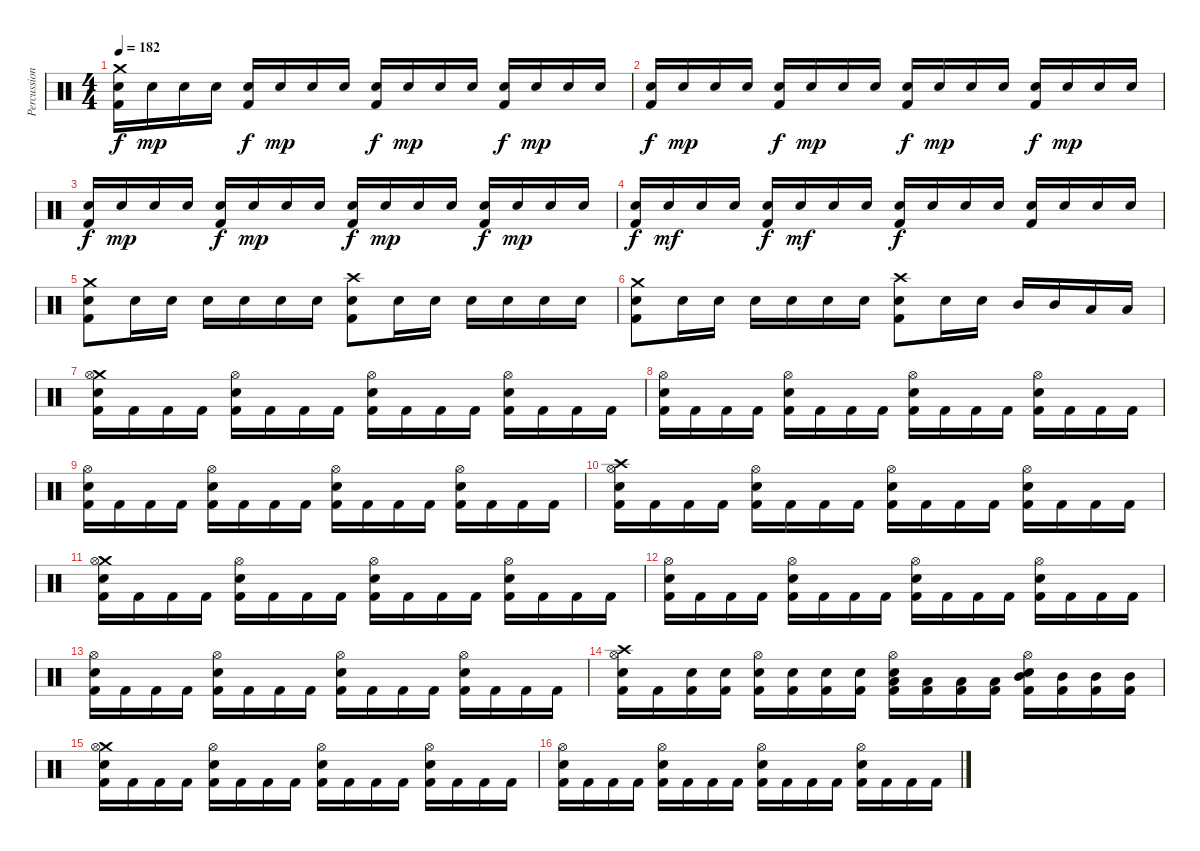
\track ("Percussion" "Percussion") {instrument percussion}
\staff {score}
\articulation defaults
\ts (4 4)
\tempo 182
\clef neutral
\ks c
("Crash medium (hit)" "Electric Snare (hit)" "Kick (hit) 2").16{dy f} "Electric Snare (hit)".16{dy mp} "Electric Snare (hit)".16 "Electric Snare (hit)".16 ("Electric Snare (hit)" "Kick (hit) 2").16{dy f} "Electric Snare (hit)".16{dy mp} "Electric Snare (hit)".16 "Electric Snare (hit)".16 ("Electric Snare (hit)" "Kick (hit) 2").16{dy f} "Electric Snare (hit)".16{dy mp} "Electric Snare (hit)".16 "Electric Snare (hit)".16 ("Electric Snare (hit)" "Kick (hit) 2").16{dy f} "Electric Snare (hit)".16{dy mp} "Electric Snare (hit)".16 "Electric Snare (hit)".16 |
("Electric Snare (hit)" "Kick (hit) 2").16{dy f} "Electric Snare (hit)".16{dy mp} "Electric Snare (hit)".16 "Electric Snare (hit)".16 ("Electric Snare (hit)" "Kick (hit) 2").16{dy f} "Electric Snare (hit)".16{dy mp} "Electric Snare (hit)".16 "Electric Snare (hit)".16 ("Electric Snare (hit)" "Kick (hit) 2").16{dy f} "Electric Snare (hit)".16{dy mp} "Electric Snare (hit)".16 "Electric Snare (hit)".16 ("Electric Snare (hit)" "Kick (hit) 2").16{dy f} "Electric Snare (hit)".16{dy mp} "Electric Snare (hit)".16 "Electric Snare (hit)".16 |
("Electric Snare (hit)" "Kick (hit) 2").16{dy f} "Electric Snare (hit)".16{dy mp} "Electric Snare (hit)".16 "Electric Snare (hit)".16 ("Electric Snare (hit)" "Kick (hit) 2").16{dy f} "Electric Snare (hit)".16{dy mp} "Electric Snare (hit)".16 "Electric Snare (hit)".16 ("Electric Snare (hit)" "Kick (hit) 2").16{dy f} "Electric Snare (hit)".16{dy mp} "Electric Snare (hit)".16 "Electric Snare (hit)".16 ("Electric Snare (hit)" "Kick (hit) 2").16{dy f} "Electric Snare (hit)".16{dy mp} "Electric Snare (hit)".16 "Electric Snare (hit)".16 |
("Electric Snare (hit)" "Kick (hit) 2").16{dy f} "Electric Snare (hit)".16{dy mf} "Electric Snare (hit)".16 "Electric Snare (hit)".16 ("Electric Snare (hit)" "Kick (hit) 2").16{dy f} "Electric Snare (hit)".16{dy mf} "Electric Snare (hit)".16 "Electric Snare (hit)".16 ("Electric Snare (hit)" "Kick (hit) 2").16{dy f} "Electric Snare (hit)".16 "Electric Snare (hit)".16 "Electric Snare (hit)".16 ("Electric Snare (hit)" "Kick (hit) 2").16 "Electric Snare (hit)".16 "Electric Snare (hit)".16 "Electric Snare (hit)".16 |
("Crash medium (hit)" "Electric Snare (hit)" "Kick (hit) 2").8 "Electric Snare (hit)".16 "Electric Snare (hit)".16 "Electric Snare (hit)".16 "Electric Snare (hit)".16 "Electric Snare (hit)".16 "Electric Snare (hit)".16 ("Crash high (hit)" "Electric Snare (hit)" "Kick (hit) 2").8 "Electric Snare (hit)".16 "Electric Snare (hit)".16 "Electric Snare (hit)".16 "Electric Snare (hit)".16 "Electric Snare (hit)".16 "Electric Snare (hit)".16 |
("Crash medium (hit)" "Electric Snare (hit)" "Kick (hit) 2").8 "Electric Snare (hit)".16 "Electric Snare (hit)".16 "Electric Snare (hit)".16 "Electric Snare (hit)".16 "Electric Snare (hit)".16 "Electric Snare (hit)".16 ("Crash high (hit)" "Electric Snare (hit)" "Kick (hit) 2").8 "Electric Snare (hit)".16 "Electric Snare (hit)".16 "Mid Tom (hit)".16 "Mid Tom (hit)".16 "Low Tom (hit)".16 "Low Tom (hit)".16 |
("Crash medium (hit)" "Hi-Hat (open)" "Electric Snare (hit)" "Kick (hit) 2").16 "Kick (hit) 2".16 "Kick (hit) 2".16 "Kick (hit) 2".16 ("Hi-Hat (open)" "Electric Snare (hit)" "Kick (hit) 2").16 "Kick (hit) 2".16 "Kick (hit) 2".16 "Kick (hit) 2".16 ("Hi-Hat (open)" "Electric Snare (hit)" "Kick (hit) 2").16 "Kick (hit) 2".16 "Kick (hit) 2".16 "Kick (hit) 2".16 ("Hi-Hat (open)" "Electric Snare (hit)" "Kick (hit) 2").16 "Kick (hit) 2".16 "Kick (hit) 2".16 "Kick (hit) 2".16 |
("Hi-Hat (open)" "Electric Snare (hit)" "Kick (hit) 2").16 "Kick (hit) 2".16 "Kick (hit) 2".16 "Kick (hit) 2".16 ("Hi-Hat (open)" "Electric Snare (hit)" "Kick (hit) 2").16 "Kick (hit) 2".16 "Kick (hit) 2".16 "Kick (hit) 2".16 ("Hi-Hat (open)" "Electric Snare (hit)" "Kick (hit) 2").16 "Kick (hit) 2".16 "Kick (hit) 2".16 "Kick (hit) 2".16 ("Hi-Hat (open)" "Electric Snare (hit)" "Kick (hit) 2").16 "Kick (hit) 2".16 "Kick (hit) 2".16 "Kick (hit) 2".16 |
("Hi-Hat (open)" "Electric Snare (hit)" "Kick (hit) 2").16 "Kick (hit) 2".16 "Kick (hit) 2".16 "Kick (hit) 2".16 ("Hi-Hat (open)" "Electric Snare (hit)" "Kick (hit) 2").16 "Kick (hit) 2".16 "Kick (hit) 2".16 "Kick (hit) 2".16 ("Hi-Hat (open)" "Electric Snare (hit)" "Kick (hit) 2").16 "Kick (hit) 2".16 "Kick (hit) 2".16 "Kick (hit) 2".16 ("Hi-Hat (open)" "Electric Snare (hit)" "Kick (hit) 2").16 "Kick (hit) 2".16 "Kick (hit) 2".16 "Kick (hit) 2".16 |
("Crash high (hit)" "Hi-Hat (open)" "Electric Snare (hit)" "Kick (hit) 2").16 "Kick (hit) 2".16 "Kick (hit) 2".16 "Kick (hit) 2".16 ("Hi-Hat (open)" "Electric Snare (hit)" "Kick (hit) 2").16 "Kick (hit) 2".16 "Kick (hit) 2".16 "Kick (hit) 2".16 ("Hi-Hat (open)" "Electric Snare (hit)" "Kick (hit) 2").16 "Kick (hit) 2".16 "Kick (hit) 2".16 "Kick (hit) 2".16 ("Hi-Hat (open)" "Electric Snare (hit)" "Kick (hit) 2").16 "Kick (hit) 2".16 "Kick (hit) 2".16 "Kick (hit) 2".16 |
("Crash medium (hit)" "Hi-Hat (open)" "Electric Snare (hit)" "Kick (hit) 2").16 "Kick (hit) 2".16 "Kick (hit) 2".16 "Kick (hit) 2".16 ("Hi-Hat (open)" "Electric Snare (hit)" "Kick (hit) 2").16 "Kick (hit) 2".16 "Kick (hit) 2".16 "Kick (hit) 2".16 ("Hi-Hat (open)" "Electric Snare (hit)" "Kick (hit) 2").16 "Kick (hit) 2".16 "Kick (hit) 2".16 "Kick (hit) 2".16 ("Hi-Hat (open)" "Electric Snare (hit)" "Kick (hit) 2").16 "Kick (hit) 2".16 "Kick (hit) 2".16 "Kick (hit) 2".16 |
("Hi-Hat (open)" "Electric Snare (hit)" "Kick (hit) 2").16 "Kick (hit) 2".16 "Kick (hit) 2".16 "Kick (hit) 2".16 ("Hi-Hat (open)" "Electric Snare (hit)" "Kick (hit) 2").16 "Kick (hit) 2".16 "Kick (hit) 2".16 "Kick (hit) 2".16 ("Hi-Hat (open)" "Electric Snare (hit)" "Kick (hit) 2").16 "Kick (hit) 2".16 "Kick (hit) 2".16 "Kick (hit) 2".16 ("Hi-Hat (open)" "Electric Snare (hit)" "Kick (hit) 2").16 "Kick (hit) 2".16 "Kick (hit) 2".16 "Kick (hit) 2".16 |
("Hi-Hat (open)" "Electric Snare (hit)" "Kick (hit) 2").16 "Kick (hit) 2".16 "Kick (hit) 2".16 "Kick (hit) 2".16 ("Hi-Hat (open)" "Electric Snare (hit)" "Kick (hit) 2").16 "Kick (hit) 2".16 "Kick (hit) 2".16 "Kick (hit) 2".16 ("Hi-Hat (open)" "Electric Snare (hit)" "Kick (hit) 2").16 "Kick (hit) 2".16 "Kick (hit) 2".16 "Kick (hit) 2".16 ("Hi-Hat (open)" "Electric Snare (hit)" "Kick (hit) 2").16 "Kick (hit) 2".16 "Kick (hit) 2".16 "Kick (hit) 2".16 |
("Crash high (hit)" "Hi-Hat (open)" "Electric Snare (hit)" "Kick (hit) 2").16 "Kick (hit) 2".16 ("Electric Snare (hit)" "Kick (hit) 2").16 ("Electric Snare (hit)" "Kick (hit) 2").16 ("Hi-Hat (open)" "Electric Snare (hit)" "Kick (hit) 2").16 ("Electric Snare (hit)" "Kick (hit) 2").16 ("Electric Snare (hit)" "Kick (hit) 2").16 ("Electric Snare (hit)" "Kick (hit) 2").16 ("Low Tom (hit)" "Hi-Hat (open)" "Electric Snare (hit)" "Kick (hit) 2").16 ("Low Tom (hit)" "Kick (hit) 2").16 ("Low Tom (hit)" "Kick (hit) 2").16 ("Low Tom (hit)" "Kick (hit) 2").16 ("Mid Tom (hit)" "Hi-Hat (open)" "Electric Snare (hit)" "Kick (hit) 2").16 ("Mid Tom (hit)" "Kick (hit) 2").16 ("Mid Tom (hit)" "Kick (hit) 2").16 ("Mid Tom (hit)" "Kick (hit) 2").16 |
("Crash medium (hit)" "Hi-Hat (open)" "Electric Snare (hit)" "Kick (hit) 2").16 "Kick (hit) 2".16 "Kick (hit) 2".16 "Kick (hit) 2".16 ("Hi-Hat (open)" "Electric Snare (hit)" "Kick (hit) 2").16 "Kick (hit) 2".16 "Kick (hit) 2".16 "Kick (hit) 2".16 ("Hi-Hat (open)" "Electric Snare (hit)" "Kick (hit) 2").16 "Kick (hit) 2".16 "Kick (hit) 2".16 "Kick (hit) 2".16 ("Hi-Hat (open)" "Electric Snare (hit)" "Kick (hit) 2").16 "Kick (hit) 2".16 "Kick (hit) 2".16 "Kick (hit) 2".16 |
("Hi-Hat (open)" "Electric Snare (hit)" "Kick (hit) 2").16 "Kick (hit) 2".16 "Kick (hit) 2".16 "Kick (hit) 2".16 ("Hi-Hat (open)" "Electric Snare (hit)" "Kick (hit) 2").16 "Kick (hit) 2".16 "Kick (hit) 2".16 "Kick (hit) 2".16 ("Hi-Hat (open)" "Electric Snare (hit)" "Kick (hit) 2").16 "Kick (hit) 2".16 "Kick (hit) 2".16 "Kick (hit) 2".16 ("Hi-Hat (open)" "Electric Snare (hit)" "Kick (hit) 2").16 "Kick (hit) 2".16 "Kick (hit) 2".16 "Kick (hit) 2".16
